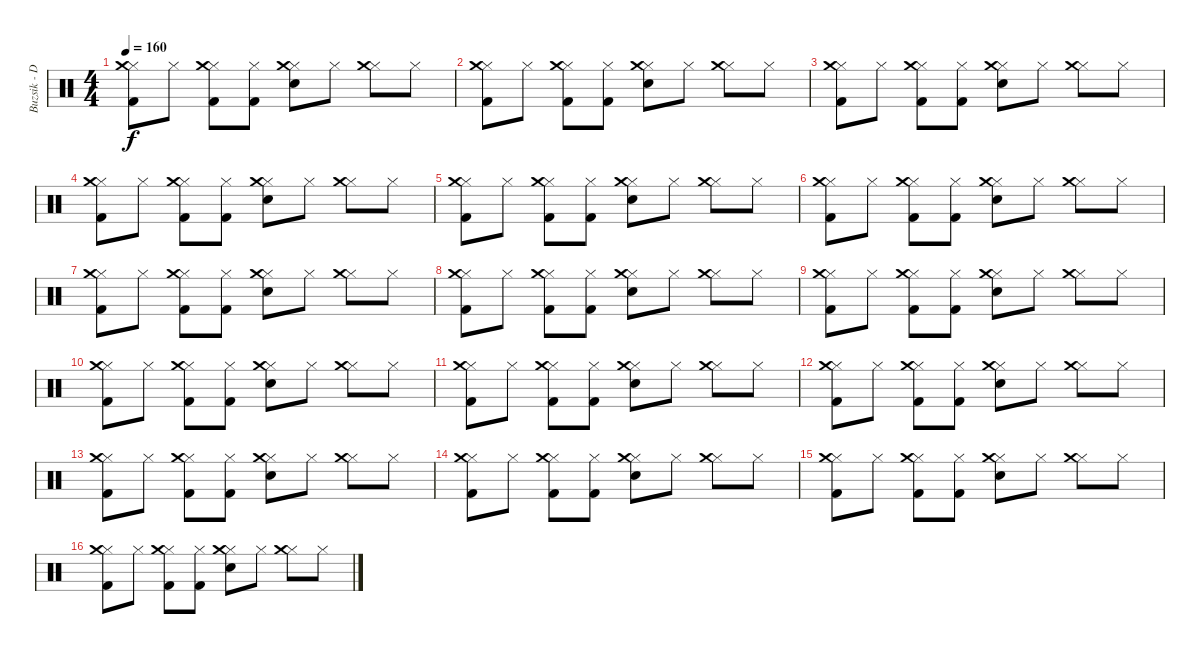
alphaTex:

\track ("Buzsik - Dob" "Buzsik - D") {instrument percussion}
\staff {score}
\articulation defaults
\ts (4 4)
\tempo 160
\clef neutral
\ks c
("Hi-Hat (closed)" "Crash medium (hit)" "Kick (hit) 2").8{dy f} "Hi-Hat (closed)".8 ("Hi-Hat (closed)" "Crash medium (hit)" "Kick (hit) 2").8 ("Hi-Hat (closed)" "Kick (hit) 2").8 ("Hi-Hat (closed)" "Crash medium (hit)" "Electric Snare (hit)").8 "Hi-Hat (closed)".8 ("Hi-Hat (closed)" "Crash medium (hit)").8 "Hi-Hat (closed)".8 |
("Hi-Hat (closed)" "Crash medium (hit)" "Kick (hit) 2").8 "Hi-Hat (closed)".8 ("Hi-Hat (closed)" "Crash medium (hit)" "Kick (hit) 2").8 ("Hi-Hat (closed)" "Kick (hit) 2").8 ("Hi-Hat (closed)" "Crash medium (hit)" "Electric Snare (hit)").8 "Hi-Hat (closed)".8 ("Hi-Hat (closed)" "Crash medium (hit)").8 "Hi-Hat (closed)".8 |
("Hi-Hat (closed)" "Crash medium (hit)" "Kick (hit) 2").8 "Hi-Hat (closed)".8 ("Hi-Hat (closed)" "Crash medium (hit)" "Kick (hit) 2").8 ("Hi-Hat (closed)" "Kick (hit) 2").8 ("Hi-Hat (closed)" "Crash medium (hit)" "Electric Snare (hit)").8 "Hi-Hat (closed)".8 ("Hi-Hat (closed)" "Crash medium (hit)").8 "Hi-Hat (closed)".8 |
("Hi-Hat (closed)" "Crash medium (hit)" "Kick (hit) 2").8 "Hi-Hat (closed)".8 ("Hi-Hat (closed)" "Crash medium (hit)" "Kick (hit) 2").8 ("Hi-Hat (closed)" "Kick (hit) 2").8 ("Hi-Hat (closed)" "Crash medium (hit)" "Electric Snare (hit)").8 "Hi-Hat (closed)".8 ("Hi-Hat (closed)" "Crash medium (hit)").8 "Hi-Hat (closed)".8 |
("Hi-Hat (closed)" "Crash medium (hit)" "Kick (hit) 2").8 "Hi-Hat (closed)".8 ("Hi-Hat (closed)" "Crash medium (hit)" "Kick (hit) 2").8 ("Hi-Hat (closed)" "Kick (hit) 2").8 ("Hi-Hat (closed)" "Crash medium (hit)" "Electric Snare (hit)").8 "Hi-Hat (closed)".8 ("Hi-Hat (closed)" "Crash medium (hit)").8 "Hi-Hat (closed)".8 |
("Hi-Hat (closed)" "Crash medium (hit)" "Kick (hit) 2").8 "Hi-Hat (closed)".8 ("Hi-Hat (closed)" "Crash medium (hit)" "Kick (hit) 2").8 ("Hi-Hat (closed)" "Kick (hit) 2").8 ("Hi-Hat (closed)" "Crash medium (hit)" "Electric Snare (hit)").8 "Hi-Hat (closed)".8 ("Hi-Hat (closed)" "Crash medium (hit)").8 "Hi-Hat (closed)".8 |
("Hi-Hat (closed)" "Crash medium (hit)" "Kick (hit) 2").8 "Hi-Hat (closed)".8 ("Hi-Hat (closed)" "Crash medium (hit)" "Kick (hit) 2").8 ("Hi-Hat (closed)" "Kick (hit) 2").8 ("Hi-Hat (closed)" "Crash medium (hit)" "Electric Snare (hit)").8 "Hi-Hat (closed)".8 ("Hi-Hat (closed)" "Crash medium (hit)").8 "Hi-Hat (closed)".8 |
("Hi-Hat (closed)" "Crash medium (hit)" "Kick (hit) 2").8 "Hi-Hat (closed)".8 ("Hi-Hat (closed)" "Crash medium (hit)" "Kick (hit) 2").8 ("Hi-Hat (closed)" "Kick (hit) 2").8 ("Hi-Hat (closed)" "Crash medium (hit)" "Electric Snare (hit)").8 "Hi-Hat (closed)".8 ("Hi-Hat (closed)" "Crash medium (hit)").8 "Hi-Hat (closed)".8 |
("Hi-Hat (closed)" "Crash medium (hit)" "Kick (hit) 2").8 "Hi-Hat (closed)".8 ("Hi-Hat (closed)" "Crash medium (hit)" "Kick (hit) 2").8 ("Hi-Hat (closed)" "Kick (hit) 2").8 ("Hi-Hat (closed)" "Crash medium (hit)" "Electric Snare (hit)").8 "Hi-Hat (closed)".8 ("Hi-Hat (closed)" "Crash medium (hit)").8 "Hi-Hat (closed)".8 |
("Hi-Hat (closed)" "Crash medium (hit)" "Kick (hit) 2").8 "Hi-Hat (closed)".8 ("Hi-Hat (closed)" "Crash medium (hit)" "Kick (hit) 2").8 ("Hi-Hat (closed)" "Kick (hit) 2").8 ("Hi-Hat (closed)" "Crash medium (hit)" "Electric Snare (hit)").8 "Hi-Hat (closed)".8 ("Hi-Hat (closed)" "Crash medium (hit)").8 "Hi-Hat (closed)".8 |
("Hi-Hat (closed)" "Crash medium (hit)" "Kick (hit) 2").8 "Hi-Hat (closed)".8 ("Hi-Hat (closed)" "Crash medium (hit)" "Kick (hit) 2").8 ("Hi-Hat (closed)" "Kick (hit) 2").8 ("Hi-Hat (closed)" "Crash medium (hit)" "Electric Snare (hit)").8 "Hi-Hat (closed)".8 ("Hi-Hat (closed)" "Crash medium (hit)").8 "Hi-Hat (closed)".8 |
("Hi-Hat (closed)" "Crash medium (hit)" "Kick (hit) 2").8 "Hi-Hat (closed)".8 ("Hi-Hat (closed)" "Crash medium (hit)" "Kick (hit) 2").8 ("Hi-Hat (closed)" "Kick (hit) 2").8 ("Hi-Hat (closed)" "Crash medium (hit)" "Electric Snare (hit)").8 "Hi-Hat (closed)".8 ("Hi-Hat (closed)" "Crash medium (hit)").8 "Hi-Hat (closed)".8 |
("Hi-Hat (closed)" "Crash medium (hit)" "Kick (hit) 2").8 "Hi-Hat (closed)".8 ("Hi-Hat (closed)" "Crash medium (hit)" "Kick (hit) 2").8 ("Hi-Hat (closed)" "Kick (hit) 2").8 ("Hi-Hat (closed)" "Crash medium (hit)" "Electric Snare (hit)").8 "Hi-Hat (closed)".8 ("Hi-Hat (closed)" "Crash medium (hit)").8 "Hi-Hat (closed)".8 |
("Hi-Hat (closed)" "Crash medium (hit)" "Kick (hit) 2").8 "Hi-Hat (closed)".8 ("Hi-Hat (closed)" "Crash medium (hit)" "Kick (hit) 2").8 ("Hi-Hat (closed)" "Kick (hit) 2").8 ("Hi-Hat (closed)" "Crash medium (hit)" "Electric Snare (hit)").8 "Hi-Hat (closed)".8 ("Hi-Hat (closed)" "Crash medium (hit)").8 "Hi-Hat (closed)".8 |
("Hi-Hat (closed)" "Crash medium (hit)" "Kick (hit) 2").8 "Hi-Hat (closed)".8 ("Hi-Hat (closed)" "Crash medium (hit)" "Kick (hit) 2").8 ("Hi-Hat (closed)" "Kick (hit) 2").8 ("Hi-Hat (closed)" "Crash medium (hit)" "Electric Snare (hit)").8 "Hi-Hat (closed)".8 ("Hi-Hat (closed)" "Crash medium (hit)").8 "Hi-Hat (closed)".8 |
("Hi-Hat (closed)" "Crash medium (hit)" "Kick (hit) 2").8 "Hi-Hat (closed)".8 ("Hi-Hat (closed)" "Crash medium (hit)" "Kick (hit) 2").8 ("Hi-Hat (closed)" "Kick (hit) 2").8 ("Hi-Hat (closed)" "Crash medium (hit)" "Electric Snare (hit)").8 "Hi-Hat (closed)".8 ("Hi-Hat (closed)" "Crash medium (hit)").8 "Hi-Hat (closed)".8
